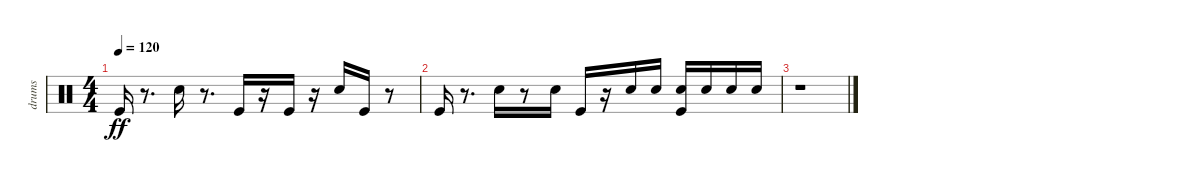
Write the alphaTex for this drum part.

\track ("drums" "drums") {instrument percussion}
\staff {score}
\articulation defaults
\ts (4 4)
\tempo 120
\clef neutral
\ks c "Kick (hit)".16{dy ff}
r.8{d} "Electric Snare (hit)".16 r.8{d} "Kick (hit)".16 r.16 "Kick (hit)".16 r.16 "Electric Snare (hit)".16 "Kick (hit)".16 r.8 |
"Kick (hit)".16 r.8{d} "Electric Snare (hit)".16 r.8 "Electric Snare (hit)".16 "Kick (hit)".16 r.16 "Electric Snare (hit)".16 "Electric Snare (hit)".16 ("Kick (hit)" "Electric Snare (hit)").16 "Electric Snare (hit)".16 "Electric Snare (hit)".16 "Electric Snare (hit)".16 |
r.1
